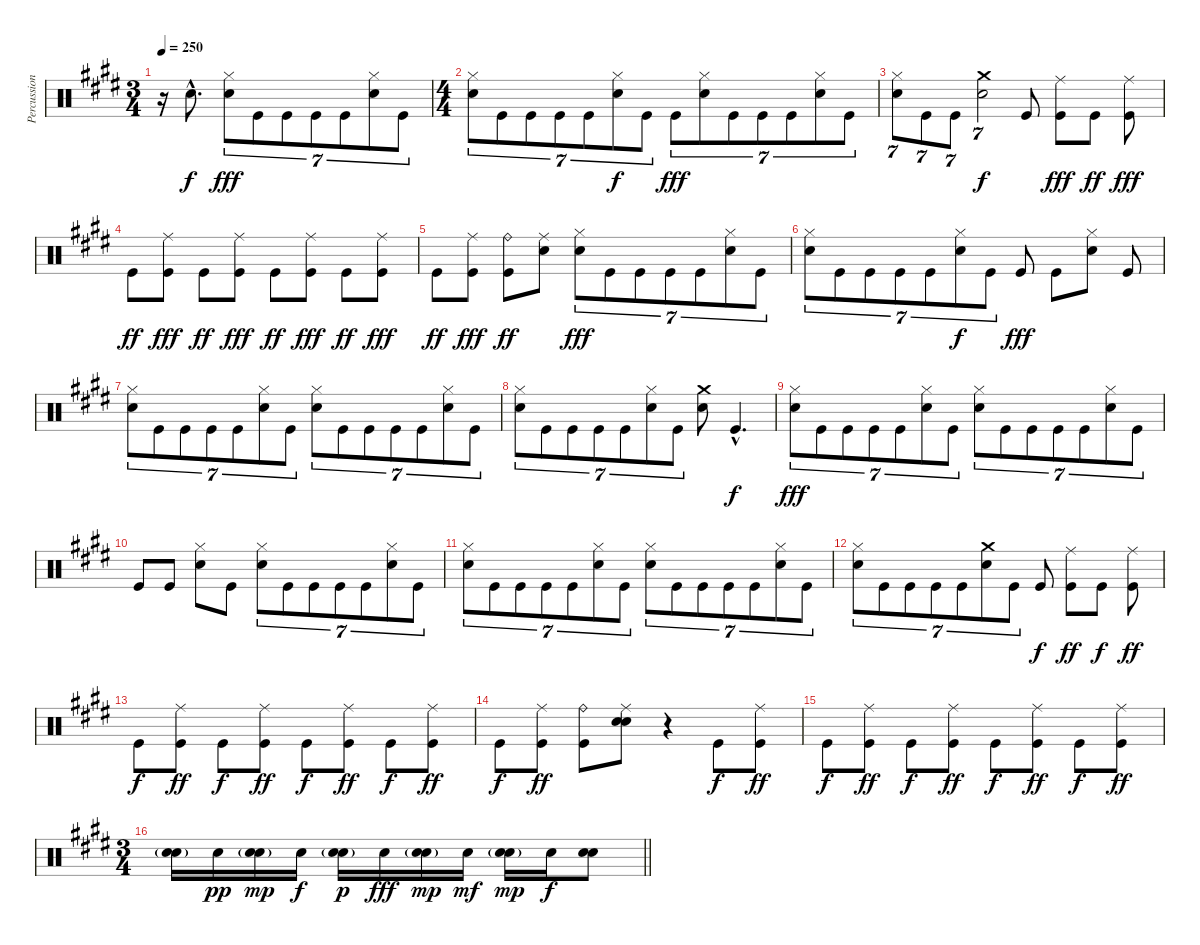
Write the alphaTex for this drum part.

\track ("Percussion" "Percussion") {instrument percussion}
\staff {score}
\articulation defaults
\ts (3 4)
\tempo 250
\clef neutral
\ks e
r.16{dy f} "Electric Snare (hit)"{hac}.8{d} ("Hi-Hat (closed)" "Electric Snare (hit)").8{tu (7 4) dy fff} "Kick (hit)".8{tu (7 4)} "Kick (hit)".8{tu (7 4)} "Kick (hit)".8{tu (7 4)} "Kick (hit)".8{tu (7 4)} ("Hi-Hat (closed)" "Electric Snare (hit)").8{tu (7 4)} "Kick (hit)".8{tu (7 4)} |
\ts (4 4)
("Hi-Hat (closed)" "Electric Snare (hit)").8{tu (7 4)} "Kick (hit)".8{tu (7 4)} "Kick (hit)".8{tu (7 4)} "Kick (hit)".8{tu (7 4)} "Kick (hit)".8{tu (7 4)} ("Hi-Hat (closed)" "Electric Snare (hit)").8{tu (7 4) dy f} "Kick (hit)".8{tu (7 4)} "Kick (hit)".8{tu (7 4) dy fff} ("Hi-Hat (closed)" "Electric Snare (hit)").8{tu (7 4)} "Kick (hit)".8{tu (7 4)} "Kick (hit)".8{tu (7 4)} "Kick (hit)".8{tu (7 4)} ("Hi-Hat (closed)" "Electric Snare (hit)").8{tu (7 4)} "Kick (hit)".8{tu (7 4)} |
("Hi-Hat (closed)" "Electric Snare (hit)").8{tu (7 4)} "Kick (hit)".8{tu (7 4)} "Kick (hit)".8{tu (7 4)} ("Crash medium (hit)" "Electric Snare (hit)").2{tu (7 4) dy f} "Kick (hit)".8 ("Ride (middle)" "Kick (hit)").8{dy fff} "Kick (hit)".8{dy ff} ("Ride (middle)" "Kick (hit)").8{dy fff} |
"Kick (hit)".8{dy ff} ("Ride (middle)" "Kick (hit)").8{dy fff} "Kick (hit)".8{dy ff} ("Ride (middle)" "Kick (hit)").8{dy fff} "Kick (hit)".8{dy ff} ("Ride (middle)" "Kick (hit)").8{dy fff} "Kick (hit)".8{dy ff} ("Ride (middle)" "Kick (hit)").8{dy fff} |
"Kick (hit)".8{dy ff} ("Ride (middle)" "Kick (hit)").8{dy fff} ("Ride (bell)" "Kick (hit)").8{dy ff} ("Ride (middle)" "Electric Snare (hit)").8 ("Hi-Hat (closed)" "Electric Snare (hit)").8{tu (7 4) dy fff} "Kick (hit)".8{tu (7 4)} "Kick (hit)".8{tu (7 4)} "Kick (hit)".8{tu (7 4)} "Kick (hit)".8{tu (7 4)} ("Hi-Hat (closed)" "Electric Snare (hit)").8{tu (7 4)} "Kick (hit)".8{tu (7 4)} |
("Hi-Hat (closed)" "Electric Snare (hit)").8{tu (7 4)} "Kick (hit)".8{tu (7 4)} "Kick (hit)".8{tu (7 4)} "Kick (hit)".8{tu (7 4)} "Kick (hit)".8{tu (7 4)} ("Hi-Hat (closed)" "Electric Snare (hit)").8{tu (7 4) dy f} "Kick (hit)".8{tu (7 4)} "Kick (hit)".8{dy fff} "Kick (hit)".8 ("Hi-Hat (closed)" "Electric Snare (hit)").8 "Kick (hit)".8 |
("Hi-Hat (closed)" "Electric Snare (hit)").8{tu (7 4)} "Kick (hit)".8{tu (7 4)} "Kick (hit)".8{tu (7 4)} "Kick (hit)".8{tu (7 4)} "Kick (hit)".8{tu (7 4)} ("Hi-Hat (closed)" "Electric Snare (hit)").8{tu (7 4)} "Kick (hit)".8{tu (7 4)} ("Hi-Hat (closed)" "Electric Snare (hit)").8{tu (7 4)} "Kick (hit)".8{tu (7 4)} "Kick (hit)".8{tu (7 4)} "Kick (hit)".8{tu (7 4)} "Kick (hit)".8{tu (7 4)} ("Hi-Hat (closed)" "Electric Snare (hit)").8{tu (7 4)} "Kick (hit)".8{tu (7 4)} |
("Hi-Hat (closed)" "Electric Snare (hit)").8{tu (7 4)} "Kick (hit)".8{tu (7 4)} "Kick (hit)".8{tu (7 4)} "Kick (hit)".8{tu (7 4)} "Kick (hit)".8{tu (7 4)} ("Hi-Hat (closed)" "Electric Snare (hit)").8{tu (7 4)} "Kick (hit)".8{tu (7 4)} ("Crash medium (hit)" "Electric Snare (hit)").8 "Kick (hit)"{hac}.4{d dy f} |
("Hi-Hat (closed)" "Electric Snare (hit)").8{tu (7 4) dy fff} "Kick (hit)".8{tu (7 4)} "Kick (hit)".8{tu (7 4)} "Kick (hit)".8{tu (7 4)} "Kick (hit)".8{tu (7 4)} ("Hi-Hat (closed)" "Electric Snare (hit)").8{tu (7 4)} "Kick (hit)".8{tu (7 4)} ("Hi-Hat (closed)" "Electric Snare (hit)").8{tu (7 4)} "Kick (hit)".8{tu (7 4)} "Kick (hit)".8{tu (7 4)} "Kick (hit)".8{tu (7 4)} "Kick (hit)".8{tu (7 4)} ("Hi-Hat (closed)" "Electric Snare (hit)").8{tu (7 4)} "Kick (hit)".8{tu (7 4)} |
"Kick (hit)".8 "Kick (hit)".8 ("Hi-Hat (closed)" "Electric Snare (hit)").8 "Kick (hit)".8 ("Hi-Hat (closed)" "Electric Snare (hit)").8{tu (7 4)} "Kick (hit)".8{tu (7 4)} "Kick (hit)".8{tu (7 4)} "Kick (hit)".8{tu (7 4)} "Kick (hit)".8{tu (7 4)} ("Hi-Hat (closed)" "Electric Snare (hit)").8{tu (7 4)} "Kick (hit)".8{tu (7 4)} |
("Hi-Hat (closed)" "Electric Snare (hit)").8{tu (7 4)} "Kick (hit)".8{tu (7 4)} "Kick (hit)".8{tu (7 4)} "Kick (hit)".8{tu (7 4)} "Kick (hit)".8{tu (7 4)} ("Hi-Hat (closed)" "Electric Snare (hit)").8{tu (7 4)} "Kick (hit)".8{tu (7 4)} ("Hi-Hat (closed)" "Electric Snare (hit)").8{tu (7 4)} "Kick (hit)".8{tu (7 4)} "Kick (hit)".8{tu (7 4)} "Kick (hit)".8{tu (7 4)} "Kick (hit)".8{tu (7 4)} ("Hi-Hat (closed)" "Electric Snare (hit)").8{tu (7 4)} "Kick (hit)".8{tu (7 4)} |
("Hi-Hat (closed)" "Electric Snare (hit)").8{tu (7 4)} "Kick (hit)".8{tu (7 4)} "Kick (hit)".8{tu (7 4)} "Kick (hit)".8{tu (7 4)} "Kick (hit)".8{tu (7 4)} ("Crash medium (hit)" "Electric Snare (hit)").8{tu (7 4)} "Kick (hit)".8{tu (7 4)} "Kick (hit)".8{dy f} ("Ride (middle)" "Kick (hit)").8{dy ff} "Kick (hit)".8{dy f} ("Ride (middle)" "Kick (hit)").8{dy ff} |
"Kick (hit)".8{dy f} ("Ride (middle)" "Kick (hit)").8{dy ff} "Kick (hit)".8{dy f} ("Ride (middle)" "Kick (hit)").8{dy ff} "Kick (hit)".8{dy f} ("Ride (middle)" "Kick (hit)").8{dy ff} "Kick (hit)".8{dy f} ("Ride (middle)" "Kick (hit)").8{dy ff} |
"Kick (hit)".8{dy f} ("Ride (middle)" "Kick (hit)").8{dy ff} ("Ride (bell)" "Kick (hit)").8 ("Ride (middle)" "Snare (hit) 2" "Electric Snare (hit)").8 r.4 "Kick (hit)".8{dy f} ("Ride (middle)" "Kick (hit)").8{dy ff} |
"Kick (hit)".8{dy f} ("Ride (middle)" "Kick (hit)").8{dy ff} "Kick (hit)".8{dy f} ("Ride (middle)" "Kick (hit)").8{dy ff} "Kick (hit)".8{dy f} ("Ride (middle)" "Kick (hit)").8{dy ff} "Kick (hit)".8{dy f} ("Ride (middle)" "Kick (hit)").8{dy ff} |
\ts (3 4)
\barLineRight lightlight
("Snare (hit) 2"{g} "Electric Snare (hit)").16 "Electric Snare (hit)".16{dy pp} ("Snare (hit) 2"{g} "Electric Snare (hit)").16{dy mp} "Electric Snare (hit)".16{dy f} ("Snare (hit) 2"{g} "Electric Snare (hit)").16{dy p} "Electric Snare (hit)".16{dy fff} ("Snare (hit) 2"{g} "Electric Snare (hit)").16{dy mp} "Electric Snare (hit)".16{dy mf} ("Snare (hit) 2"{g} "Electric Snare (hit)").16{dy mp} "Electric Snare (hit)".16{dy f} ("Snare (hit) 2" "Electric Snare (hit)").8
